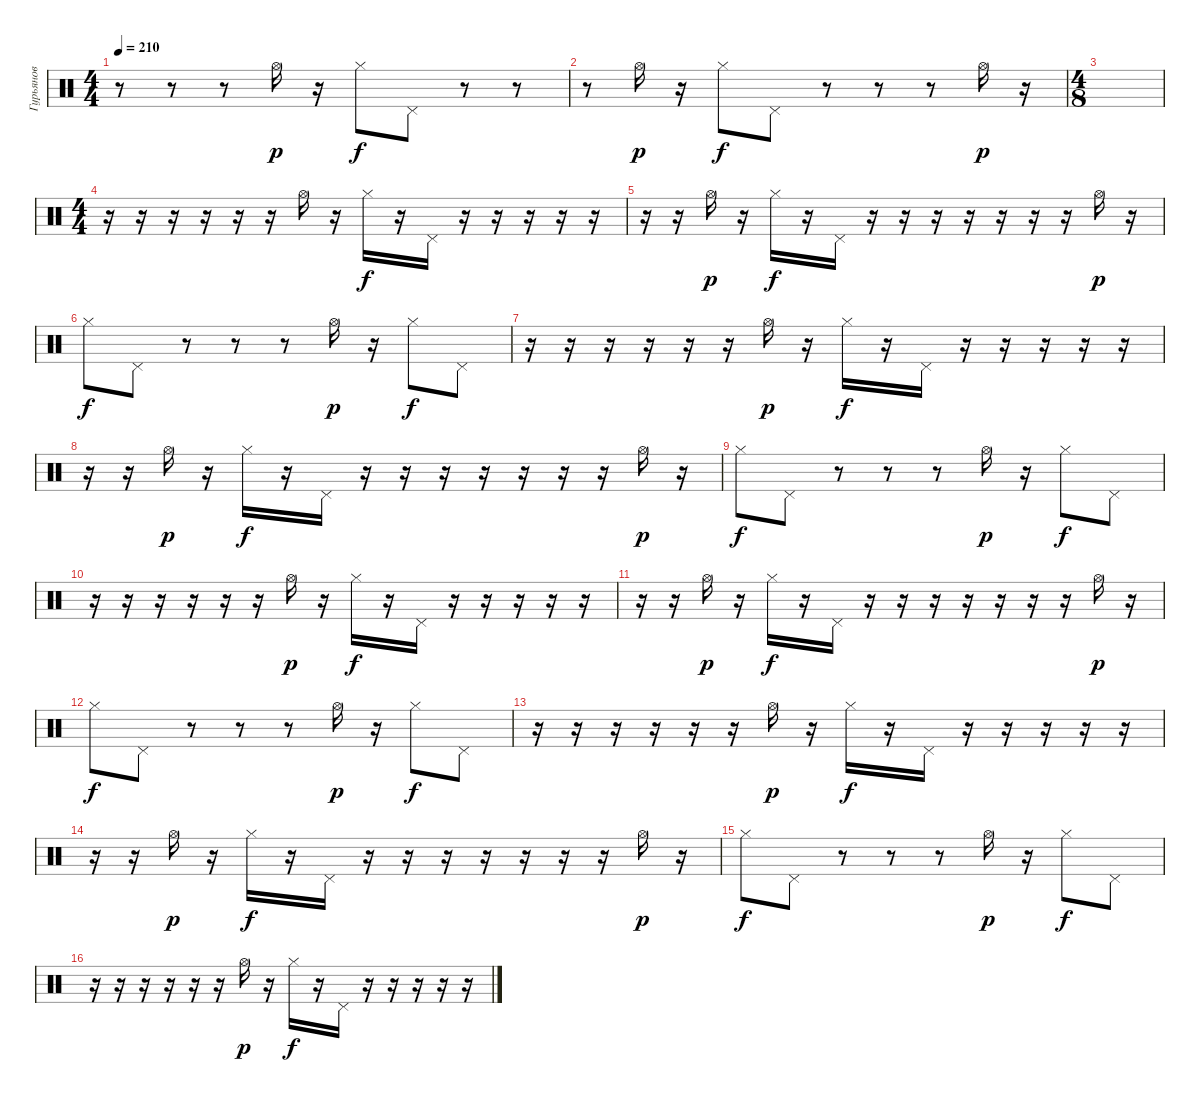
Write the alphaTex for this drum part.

\track ("Гурьянов" "Гурьянов") {instrument percussion}
\staff {score}
\articulation defaults
\ts (4 4)
\tempo 210
\clef neutral
\ks c
r.8{dy f} r.8 r.8 "Hi-Hat (open)".16{dy p} r.16 "Hi-Hat (closed)".8{dy f} "Pedal Hi-Hat (hit)".8 r.8 r.8 |
r.8 "Hi-Hat (open)".16{dy p} r.16 "Hi-Hat (closed)".8{dy f} "Pedal Hi-Hat (hit)".8 r.8 r.8 r.8 "Hi-Hat (open)".16{dy p} r.16 |
\ts (4 8)
|
\ts (4 4)
r.16 r.16 r.16 r.16 r.16 r.16 "Hi-Hat (open)".16 r.16 "Hi-Hat (closed)".16{dy f} r.16 "Pedal Hi-Hat (hit)".16 r.16 r.16 r.16 r.16 r.16 |
r.16 r.16 "Hi-Hat (open)".16{dy p} r.16 "Hi-Hat (closed)".16{dy f} r.16 "Pedal Hi-Hat (hit)".16 r.16 r.16 r.16 r.16 r.16 r.16 r.16 "Hi-Hat (open)".16{dy p} r.16 |
"Hi-Hat (closed)".8{dy f} "Pedal Hi-Hat (hit)".8 r.8 r.8 r.8 "Hi-Hat (open)".16{dy p} r.16 "Hi-Hat (closed)".8{dy f} "Pedal Hi-Hat (hit)".8 |
r.16 r.16 r.16 r.16 r.16 r.16 "Hi-Hat (open)".16{dy p} r.16 "Hi-Hat (closed)".16{dy f} r.16 "Pedal Hi-Hat (hit)".16 r.16 r.16 r.16 r.16 r.16 |
r.16 r.16 "Hi-Hat (open)".16{dy p} r.16 "Hi-Hat (closed)".16{dy f} r.16 "Pedal Hi-Hat (hit)".16 r.16 r.16 r.16 r.16 r.16 r.16 r.16 "Hi-Hat (open)".16{dy p} r.16 |
"Hi-Hat (closed)".8{dy f} "Pedal Hi-Hat (hit)".8 r.8 r.8 r.8 "Hi-Hat (open)".16{dy p} r.16 "Hi-Hat (closed)".8{dy f} "Pedal Hi-Hat (hit)".8 |
r.16 r.16 r.16 r.16 r.16 r.16 "Hi-Hat (open)".16{dy p} r.16 "Hi-Hat (closed)".16{dy f} r.16 "Pedal Hi-Hat (hit)".16 r.16 r.16 r.16 r.16 r.16 |
r.16 r.16 "Hi-Hat (open)".16{dy p} r.16 "Hi-Hat (closed)".16{dy f} r.16 "Pedal Hi-Hat (hit)".16 r.16 r.16 r.16 r.16 r.16 r.16 r.16 "Hi-Hat (open)".16{dy p} r.16 |
"Hi-Hat (closed)".8{dy f} "Pedal Hi-Hat (hit)".8 r.8 r.8 r.8 "Hi-Hat (open)".16{dy p} r.16 "Hi-Hat (closed)".8{dy f} "Pedal Hi-Hat (hit)".8 |
r.16 r.16 r.16 r.16 r.16 r.16 "Hi-Hat (open)".16{dy p} r.16 "Hi-Hat (closed)".16{dy f} r.16 "Pedal Hi-Hat (hit)".16 r.16 r.16 r.16 r.16 r.16 |
r.16 r.16 "Hi-Hat (open)".16{dy p} r.16 "Hi-Hat (closed)".16{dy f} r.16 "Pedal Hi-Hat (hit)".16 r.16 r.16 r.16 r.16 r.16 r.16 r.16 "Hi-Hat (open)".16{dy p} r.16 |
"Hi-Hat (closed)".8{dy f} "Pedal Hi-Hat (hit)".8 r.8 r.8 r.8 "Hi-Hat (open)".16{dy p} r.16 "Hi-Hat (closed)".8{dy f} "Pedal Hi-Hat (hit)".8 |
r.16 r.16 r.16 r.16 r.16 r.16 "Hi-Hat (open)".16{dy p} r.16 "Hi-Hat (closed)".16{dy f} r.16 "Pedal Hi-Hat (hit)".16 r.16 r.16 r.16 r.16 r.16
